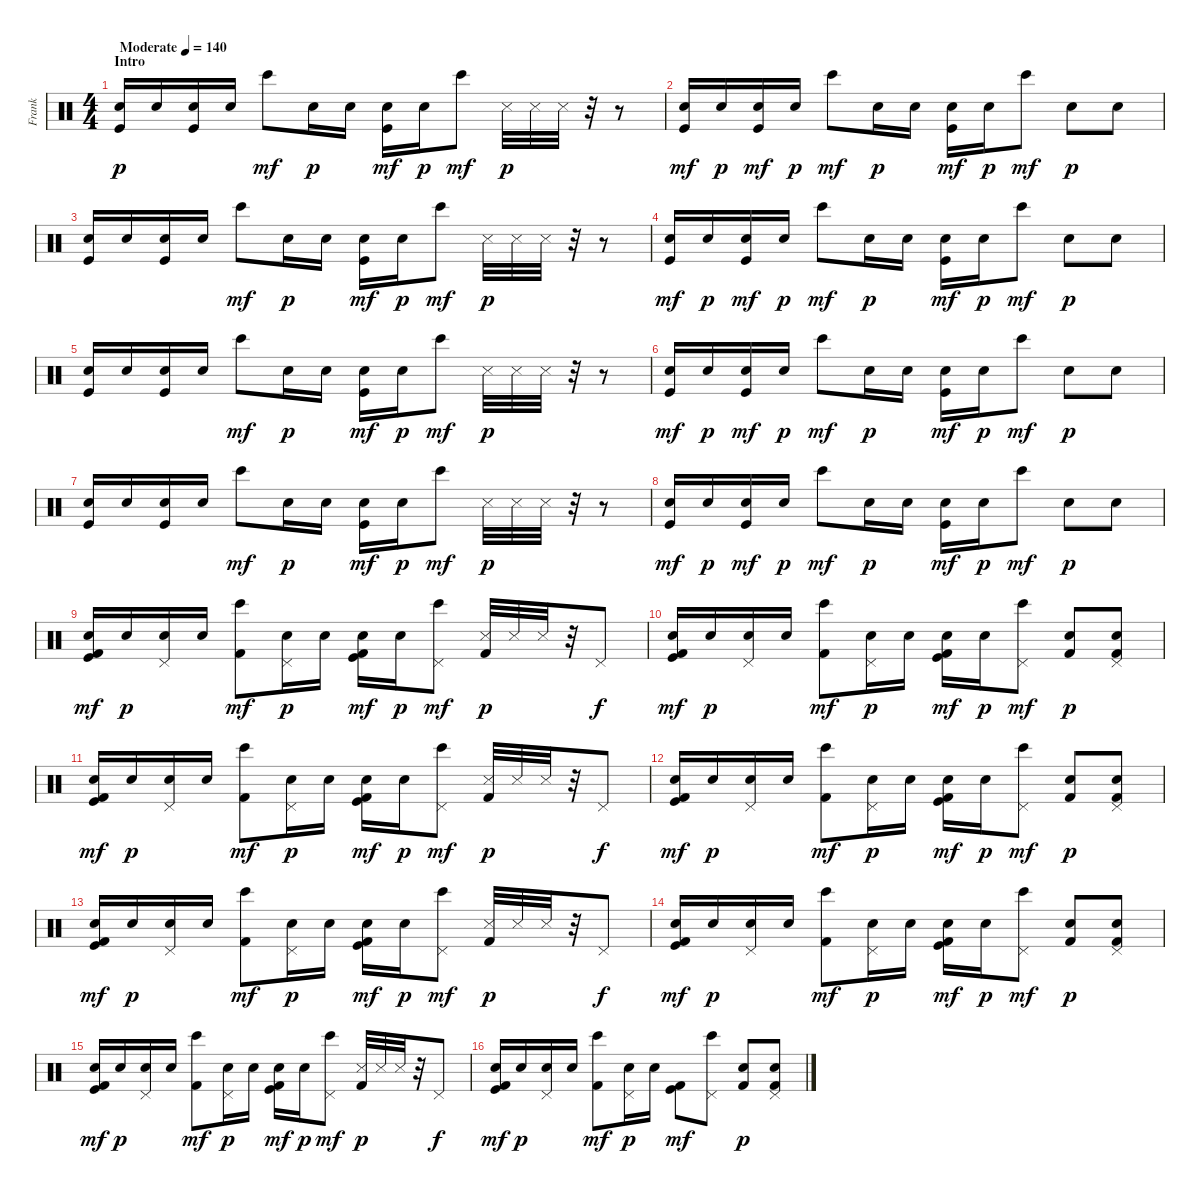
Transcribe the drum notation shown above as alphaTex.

\track ("Frank" "Frank") {instrument percussion}
\staff {score}
\articulation defaults
\ts (4 4)
\section ("" "Intro")
\tempo (140 "Moderate")
\clef neutral
\ks c
("Electric Snare (hit)" "Kick (hit)").16{dy p volume 9} "Electric Snare (hit)".16 ("Electric Snare (hit)" "Kick (hit)").16 "Electric Snare (hit)".16 "Bongo High (hit)".8{dy mf} "Electric Snare (hit)".16{dy p} "Electric Snare (hit)".16 ("Electric Snare (hit)" "Kick (hit)").16{dy mf} "Electric Snare (hit)".16{dy p} "Bongo High (hit)".8{dy mf} "Snare (side stick) 3".32{dy p} "Snare (side stick) 3".32 "Snare (side stick) 3".32 r.32 r.8 |
("Electric Snare (hit)" "Kick (hit)").16{dy mf} "Electric Snare (hit)".16{dy p} ("Electric Snare (hit)" "Kick (hit)").16{dy mf} "Electric Snare (hit)".16{dy p} "Bongo High (hit)".8{dy mf} "Electric Snare (hit)".16{dy p} "Electric Snare (hit)".16 ("Electric Snare (hit)" "Kick (hit)").16{dy mf} "Electric Snare (hit)".16{dy p} "Bongo High (hit)".8{dy mf} "Electric Snare (hit)".8{dy p} "Electric Snare (hit)".8 |
("Electric Snare (hit)" "Kick (hit)").16 "Electric Snare (hit)".16 ("Electric Snare (hit)" "Kick (hit)").16 "Electric Snare (hit)".16 "Bongo High (hit)".8{dy mf} "Electric Snare (hit)".16{dy p} "Electric Snare (hit)".16 ("Electric Snare (hit)" "Kick (hit)").16{dy mf} "Electric Snare (hit)".16{dy p} "Bongo High (hit)".8{dy mf} "Snare (side stick) 3".32{dy p} "Snare (side stick) 3".32 "Snare (side stick) 3".32 r.32 r.8 |
("Electric Snare (hit)" "Kick (hit)").16{dy mf} "Electric Snare (hit)".16{dy p} ("Electric Snare (hit)" "Kick (hit)").16{dy mf} "Electric Snare (hit)".16{dy p} "Bongo High (hit)".8{dy mf} "Electric Snare (hit)".16{dy p} "Electric Snare (hit)".16 ("Electric Snare (hit)" "Kick (hit)").16{dy mf} "Electric Snare (hit)".16{dy p} "Bongo High (hit)".8{dy mf} "Electric Snare (hit)".8{dy p} "Electric Snare (hit)".8 |
("Electric Snare (hit)" "Kick (hit)").16 "Electric Snare (hit)".16 ("Electric Snare (hit)" "Kick (hit)").16 "Electric Snare (hit)".16 "Bongo High (hit)".8{dy mf} "Electric Snare (hit)".16{dy p} "Electric Snare (hit)".16 ("Electric Snare (hit)" "Kick (hit)").16{dy mf} "Electric Snare (hit)".16{dy p} "Bongo High (hit)".8{dy mf} "Snare (side stick) 3".32{dy p} "Snare (side stick) 3".32 "Snare (side stick) 3".32 r.32 r.8 |
("Electric Snare (hit)" "Kick (hit)").16{dy mf} "Electric Snare (hit)".16{dy p} ("Electric Snare (hit)" "Kick (hit)").16{dy mf} "Electric Snare (hit)".16{dy p} "Bongo High (hit)".8{dy mf} "Electric Snare (hit)".16{dy p} "Electric Snare (hit)".16 ("Electric Snare (hit)" "Kick (hit)").16{dy mf} "Electric Snare (hit)".16{dy p} "Bongo High (hit)".8{dy mf} "Electric Snare (hit)".8{dy p} "Electric Snare (hit)".8 |
("Electric Snare (hit)" "Kick (hit)").16 "Electric Snare (hit)".16 ("Electric Snare (hit)" "Kick (hit)").16 "Electric Snare (hit)".16 "Bongo High (hit)".8{dy mf} "Electric Snare (hit)".16{dy p} "Electric Snare (hit)".16 ("Electric Snare (hit)" "Kick (hit)").16{dy mf} "Electric Snare (hit)".16{dy p} "Bongo High (hit)".8{dy mf} "Snare (side stick) 3".32{dy p} "Snare (side stick) 3".32 "Snare (side stick) 3".32 r.32 r.8 |
("Electric Snare (hit)" "Kick (hit)").16{dy mf} "Electric Snare (hit)".16{dy p} ("Electric Snare (hit)" "Kick (hit)").16{dy mf} "Electric Snare (hit)".16{dy p} "Bongo High (hit)".8{dy mf} "Electric Snare (hit)".16{dy p} "Electric Snare (hit)".16 ("Electric Snare (hit)" "Kick (hit)").16{dy mf} "Electric Snare (hit)".16{dy p} "Bongo High (hit)".8{dy mf} "Electric Snare (hit)".8{dy p} "Electric Snare (hit)".8 |
("Kick (hit) 2" "Electric Snare (hit)" "Kick (hit)").16{dy mf} "Electric Snare (hit)".16{dy p} ("Pedal Hi-Hat (hit)" "Electric Snare (hit)").16 "Electric Snare (hit)".16 ("Kick (hit) 2" "Bongo High (hit)").8{dy mf} ("Pedal Hi-Hat (hit)" "Electric Snare (hit)").16{dy p} "Electric Snare (hit)".16 ("Kick (hit) 2" "Electric Snare (hit)" "Kick (hit)").16{dy mf} "Electric Snare (hit)".16{dy p} ("Pedal Hi-Hat (hit)" "Bongo High (hit)").8{dy mf} ("Kick (hit) 2" "Snare (side stick) 3").32{dy p} "Snare (side stick) 3".32 "Snare (side stick) 3".32 r.32 "Pedal Hi-Hat (hit)".8{dy f} |
("Kick (hit) 2" "Electric Snare (hit)" "Kick (hit)").16{dy mf} "Electric Snare (hit)".16{dy p} ("Pedal Hi-Hat (hit)" "Electric Snare (hit)").16 "Electric Snare (hit)".16 ("Kick (hit) 2" "Bongo High (hit)").8{dy mf} ("Pedal Hi-Hat (hit)" "Electric Snare (hit)").16{dy p} "Electric Snare (hit)".16 ("Kick (hit) 2" "Electric Snare (hit)" "Kick (hit)").16{dy mf} "Electric Snare (hit)".16{dy p} ("Pedal Hi-Hat (hit)" "Bongo High (hit)").8{dy mf} ("Kick (hit) 2" "Electric Snare (hit)").8{dy p} ("Pedal Hi-Hat (hit)" "Kick (hit) 2" "Electric Snare (hit)").8 |
("Kick (hit) 2" "Electric Snare (hit)" "Kick (hit)").16{dy mf} "Electric Snare (hit)".16{dy p} ("Pedal Hi-Hat (hit)" "Electric Snare (hit)").16 "Electric Snare (hit)".16 ("Kick (hit) 2" "Bongo High (hit)").8{dy mf} ("Pedal Hi-Hat (hit)" "Electric Snare (hit)").16{dy p} "Electric Snare (hit)".16 ("Kick (hit) 2" "Electric Snare (hit)" "Kick (hit)").16{dy mf} "Electric Snare (hit)".16{dy p} ("Pedal Hi-Hat (hit)" "Bongo High (hit)").8{dy mf} ("Kick (hit) 2" "Snare (side stick) 3").32{dy p} "Snare (side stick) 3".32 "Snare (side stick) 3".32 r.32 "Pedal Hi-Hat (hit)".8{dy f} |
("Kick (hit) 2" "Electric Snare (hit)" "Kick (hit)").16{dy mf} "Electric Snare (hit)".16{dy p} ("Pedal Hi-Hat (hit)" "Electric Snare (hit)").16 "Electric Snare (hit)".16 ("Kick (hit) 2" "Bongo High (hit)").8{dy mf} ("Pedal Hi-Hat (hit)" "Electric Snare (hit)").16{dy p} "Electric Snare (hit)".16 ("Kick (hit) 2" "Electric Snare (hit)" "Kick (hit)").16{dy mf} "Electric Snare (hit)".16{dy p} ("Pedal Hi-Hat (hit)" "Bongo High (hit)").8{dy mf} ("Kick (hit) 2" "Electric Snare (hit)").8{dy p} ("Pedal Hi-Hat (hit)" "Kick (hit) 2" "Electric Snare (hit)").8 |
("Kick (hit) 2" "Electric Snare (hit)" "Kick (hit)").16{dy mf} "Electric Snare (hit)".16{dy p} ("Pedal Hi-Hat (hit)" "Electric Snare (hit)").16 "Electric Snare (hit)".16 ("Kick (hit) 2" "Bongo High (hit)").8{dy mf} ("Pedal Hi-Hat (hit)" "Electric Snare (hit)").16{dy p} "Electric Snare (hit)".16 ("Kick (hit) 2" "Electric Snare (hit)" "Kick (hit)").16{dy mf} "Electric Snare (hit)".16{dy p} ("Pedal Hi-Hat (hit)" "Bongo High (hit)").8{dy mf} ("Kick (hit) 2" "Snare (side stick) 3").32{dy p} "Snare (side stick) 3".32 "Snare (side stick) 3".32 r.32 "Pedal Hi-Hat (hit)".8{dy f} |
("Kick (hit) 2" "Electric Snare (hit)" "Kick (hit)").16{dy mf} "Electric Snare (hit)".16{dy p} ("Pedal Hi-Hat (hit)" "Electric Snare (hit)").16 "Electric Snare (hit)".16 ("Kick (hit) 2" "Bongo High (hit)").8{dy mf} ("Pedal Hi-Hat (hit)" "Electric Snare (hit)").16{dy p} "Electric Snare (hit)".16 ("Kick (hit) 2" "Electric Snare (hit)" "Kick (hit)").16{dy mf} "Electric Snare (hit)".16{dy p} ("Pedal Hi-Hat (hit)" "Bongo High (hit)").8{dy mf} ("Kick (hit) 2" "Electric Snare (hit)").8{dy p} ("Pedal Hi-Hat (hit)" "Kick (hit) 2" "Electric Snare (hit)").8 |
("Kick (hit) 2" "Electric Snare (hit)" "Kick (hit)").16{dy mf} "Electric Snare (hit)".16{dy p} ("Pedal Hi-Hat (hit)" "Electric Snare (hit)").16 "Electric Snare (hit)".16 ("Kick (hit) 2" "Bongo High (hit)").8{dy mf} ("Pedal Hi-Hat (hit)" "Electric Snare (hit)").16{dy p} "Electric Snare (hit)".16 ("Kick (hit) 2" "Electric Snare (hit)" "Kick (hit)").16{dy mf} "Electric Snare (hit)".16{dy p} ("Pedal Hi-Hat (hit)" "Bongo High (hit)").8{dy mf} ("Kick (hit) 2" "Snare (side stick) 3").32{dy p} "Snare (side stick) 3".32 "Snare (side stick) 3".32 r.32 "Pedal Hi-Hat (hit)".8{dy f} |
("Kick (hit) 2" "Electric Snare (hit)" "Kick (hit)").16{dy mf} "Electric Snare (hit)".16{dy p} ("Pedal Hi-Hat (hit)" "Electric Snare (hit)").16 "Electric Snare (hit)".16 ("Kick (hit) 2" "Bongo High (hit)").8{dy mf} ("Pedal Hi-Hat (hit)" "Electric Snare (hit)").16{dy p} "Electric Snare (hit)".16 ("Kick (hit) 2" "Kick (hit)").8{dy mf} ("Pedal Hi-Hat (hit)" "Bongo High (hit)").8 ("Kick (hit) 2" "Electric Snare (hit)").8{dy p} ("Pedal Hi-Hat (hit)" "Kick (hit) 2" "Electric Snare (hit)").8
